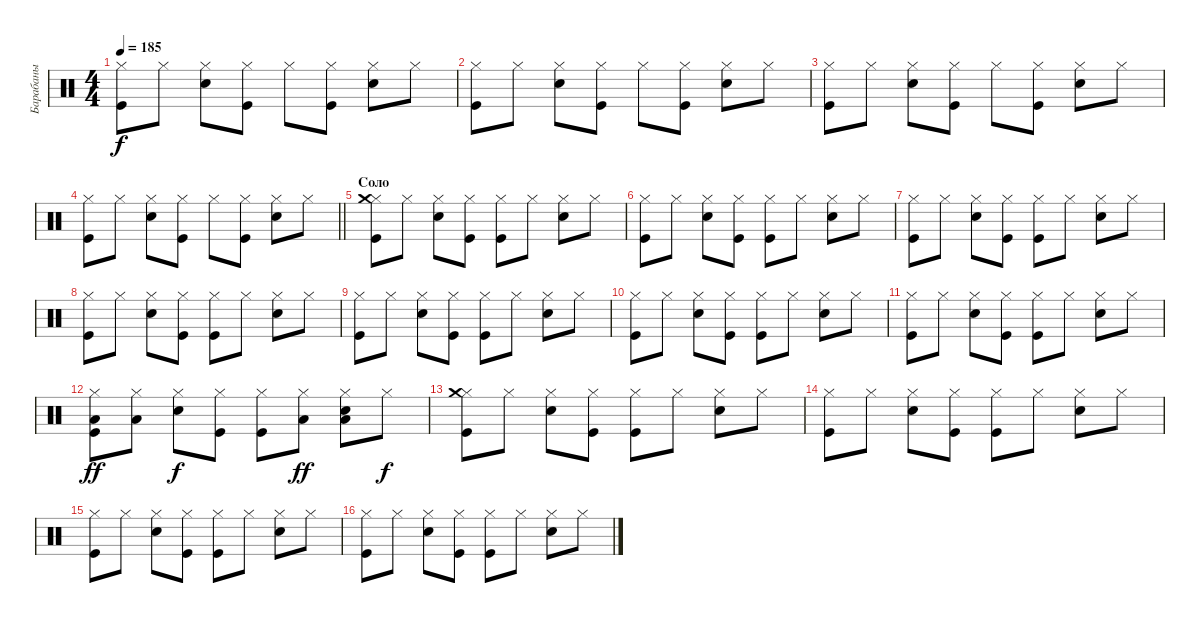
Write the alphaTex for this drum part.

\track ("Барабаны" "Барабаны") {instrument percussion}
\staff {score}
\articulation defaults
\ts (4 4)
\tempo 185
\clef neutral
\ks c
("Kick (hit)" "Hi-Hat (closed)").8{dy f} "Hi-Hat (closed)".8 ("Snare (hit) 2" "Hi-Hat (closed)").8 ("Kick (hit)" "Hi-Hat (closed)").8 "Hi-Hat (closed)".8 ("Kick (hit)" "Hi-Hat (closed)").8 ("Snare (hit) 2" "Hi-Hat (closed)").8 "Hi-Hat (closed)".8 |
("Kick (hit)" "Hi-Hat (closed)").8 "Hi-Hat (closed)".8 ("Snare (hit) 2" "Hi-Hat (closed)").8 ("Kick (hit)" "Hi-Hat (closed)").8 "Hi-Hat (closed)".8 ("Kick (hit)" "Hi-Hat (closed)").8 ("Snare (hit) 2" "Hi-Hat (closed)").8 "Hi-Hat (closed)".8 |
("Kick (hit)" "Hi-Hat (closed)").8 "Hi-Hat (closed)".8 ("Snare (hit) 2" "Hi-Hat (closed)").8 ("Kick (hit)" "Hi-Hat (closed)").8 "Hi-Hat (closed)".8 ("Kick (hit)" "Hi-Hat (closed)").8 ("Snare (hit) 2" "Hi-Hat (closed)").8 "Hi-Hat (closed)".8 |
\barLineRight lightlight
("Kick (hit)" "Hi-Hat (closed)").8 "Hi-Hat (closed)".8 ("Snare (hit) 2" "Hi-Hat (closed)").8 ("Kick (hit)" "Hi-Hat (closed)").8 "Hi-Hat (closed)".8 ("Kick (hit)" "Hi-Hat (closed)").8 ("Snare (hit) 2" "Hi-Hat (closed)").8 "Hi-Hat (closed)".8 |
\section ("" "Соло")
("Kick (hit)" "Hi-Hat (closed)" "Crash medium (hit)").8 "Hi-Hat (closed)".8 ("Snare (hit) 2" "Hi-Hat (closed)").8 ("Kick (hit)" "Hi-Hat (closed)").8 ("Kick (hit)" "Hi-Hat (closed)").8 "Hi-Hat (closed)".8 ("Snare (hit) 2" "Hi-Hat (closed)").8 "Hi-Hat (closed)".8 |
("Kick (hit)" "Hi-Hat (closed)").8 "Hi-Hat (closed)".8 ("Snare (hit) 2" "Hi-Hat (closed)").8 ("Kick (hit)" "Hi-Hat (closed)").8 ("Kick (hit)" "Hi-Hat (closed)").8 "Hi-Hat (closed)".8 ("Snare (hit) 2" "Hi-Hat (closed)").8 "Hi-Hat (closed)".8 |
("Kick (hit)" "Hi-Hat (closed)").8 "Hi-Hat (closed)".8 ("Snare (hit) 2" "Hi-Hat (closed)").8 ("Kick (hit)" "Hi-Hat (closed)").8 ("Kick (hit)" "Hi-Hat (closed)").8 "Hi-Hat (closed)".8 ("Snare (hit) 2" "Hi-Hat (closed)").8 "Hi-Hat (closed)".8 |
("Kick (hit)" "Hi-Hat (closed)").8 "Hi-Hat (closed)".8 ("Snare (hit) 2" "Hi-Hat (closed)").8 ("Kick (hit)" "Hi-Hat (closed)").8 ("Kick (hit)" "Hi-Hat (closed)").8 "Hi-Hat (closed)".8 ("Snare (hit) 2" "Hi-Hat (closed)").8 "Hi-Hat (closed)".8 |
("Kick (hit)" "Hi-Hat (closed)").8 "Hi-Hat (closed)".8 ("Snare (hit) 2" "Hi-Hat (closed)").8 ("Kick (hit)" "Hi-Hat (closed)").8 ("Kick (hit)" "Hi-Hat (closed)").8 "Hi-Hat (closed)".8 ("Snare (hit) 2" "Hi-Hat (closed)").8 "Hi-Hat (closed)".8 |
("Kick (hit)" "Hi-Hat (closed)").8 "Hi-Hat (closed)".8 ("Snare (hit) 2" "Hi-Hat (closed)").8 ("Kick (hit)" "Hi-Hat (closed)").8 ("Kick (hit)" "Hi-Hat (closed)").8 "Hi-Hat (closed)".8 ("Snare (hit) 2" "Hi-Hat (closed)").8 "Hi-Hat (closed)".8 |
("Kick (hit)" "Hi-Hat (closed)").8 "Hi-Hat (closed)".8 ("Snare (hit) 2" "Hi-Hat (closed)").8 ("Kick (hit)" "Hi-Hat (closed)").8 ("Kick (hit)" "Hi-Hat (closed)").8 "Hi-Hat (closed)".8 ("Snare (hit) 2" "Hi-Hat (closed)").8 "Hi-Hat (closed)".8 |
("Kick (hit)" "Hi-Hat (closed)" "Low Tom (hit)").8{dy ff} ("Hi-Hat (closed)" "Low Tom (hit)").8 ("Snare (hit) 2" "Hi-Hat (closed)").8{dy f} ("Kick (hit)" "Hi-Hat (closed)").8 ("Kick (hit)" "Hi-Hat (closed)").8 ("Hi-Hat (closed)" "Low Floor Tom (hit)").8{dy ff} ("Snare (hit) 2" "Hi-Hat (closed)" "Low Floor Tom (hit)").8 "Hi-Hat (closed)".8{dy f} |
("Kick (hit)" "Hi-Hat (closed)" "Crash medium (hit)").8 "Hi-Hat (closed)".8 ("Snare (hit) 2" "Hi-Hat (closed)").8 ("Kick (hit)" "Hi-Hat (closed)").8 ("Kick (hit)" "Hi-Hat (closed)").8 "Hi-Hat (closed)".8 ("Snare (hit) 2" "Hi-Hat (closed)").8 "Hi-Hat (closed)".8 |
("Kick (hit)" "Hi-Hat (closed)").8 "Hi-Hat (closed)".8 ("Snare (hit) 2" "Hi-Hat (closed)").8 ("Kick (hit)" "Hi-Hat (closed)").8 ("Kick (hit)" "Hi-Hat (closed)").8 "Hi-Hat (closed)".8 ("Snare (hit) 2" "Hi-Hat (closed)").8 "Hi-Hat (closed)".8 |
("Kick (hit)" "Hi-Hat (closed)").8 "Hi-Hat (closed)".8 ("Snare (hit) 2" "Hi-Hat (closed)").8 ("Kick (hit)" "Hi-Hat (closed)").8 ("Kick (hit)" "Hi-Hat (closed)").8 "Hi-Hat (closed)".8 ("Snare (hit) 2" "Hi-Hat (closed)").8 "Hi-Hat (closed)".8 |
("Kick (hit)" "Hi-Hat (closed)").8 "Hi-Hat (closed)".8 ("Snare (hit) 2" "Hi-Hat (closed)").8 ("Kick (hit)" "Hi-Hat (closed)").8 ("Kick (hit)" "Hi-Hat (closed)").8 "Hi-Hat (closed)".8 ("Snare (hit) 2" "Hi-Hat (closed)").8 "Hi-Hat (closed)".8
